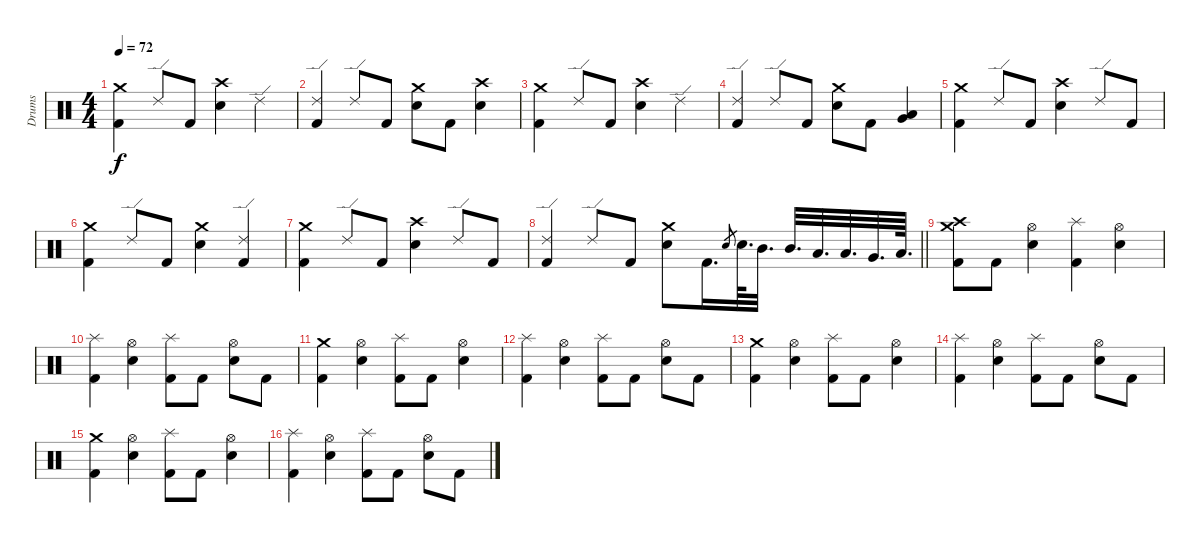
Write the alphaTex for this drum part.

\track ("Drums" "Drums") {instrument percussion}
\staff {score}
\articulation defaults
\ts (4 4)
\tempo 72
\clef neutral
\ks c
("Crash medium (hit)" "Kick (hit) 2").4{dy f} "Ride (edge) 2".8 "Kick (hit) 2".8 ("Crash high (hit)" "Snare (hit) 2").4 "Ride (edge) 2".4 |
("Ride (edge) 2" "Kick (hit) 2").4 "Ride (edge) 2".8 "Kick (hit) 2".8 ("Crash medium (hit)" "Snare (hit) 2").8 "Kick (hit) 2".8 ("Crash high (hit)" "Snare (hit) 2").4 |
("Crash medium (hit)" "Kick (hit) 2").4 "Ride (edge) 2".8 "Kick (hit) 2".8 ("Crash high (hit)" "Snare (hit) 2").4 "Ride (edge) 2".4 |
("Ride (edge) 2" "Kick (hit) 2").4 "Ride (edge) 2".8 "Kick (hit) 2".8 ("Crash medium (hit)" "Snare (hit) 2").8 "Kick (hit) 2".8 ("Very Low Tom (hit)" "Low Tom (hit)").4 |
("Crash medium (hit)" "Kick (hit) 2").4 "Ride (edge) 2".8 "Kick (hit) 2".8 ("Crash high (hit)" "Snare (hit) 2").4 "Ride (edge) 2".8 "Kick (hit) 2".8 |
("Crash medium (hit)" "Kick (hit) 2").4 "Ride (edge) 2".8 "Kick (hit) 2".8 ("Crash medium (hit)" "Snare (hit) 2").4 ("Ride (edge) 2" "Kick (hit) 2").4 |
("Crash medium (hit)" "Kick (hit) 2").4 "Ride (edge) 2".8 "Kick (hit) 2".8 ("Crash high (hit)" "Snare (hit) 2").4 "Ride (edge) 2".8 "Kick (hit) 2".8 |
\barLineRight lightlight
("Ride (edge) 2" "Kick (hit) 2").4 "Ride (edge) 2".8 "Kick (hit) 2".8 ("Crash medium (hit)" "Snare (hit) 2").8 "Kick (hit) 2".16{d} "Snare (hit) 2".8{gr} "Snare (hit) 2".64{d} "Mid Tom (hit)".32{d} "Mid Tom (hit)".32{d} "Low Tom (hit)".32{d} "Low Tom (hit)".32{d} "Very Low Tom (hit)".32{d} "Low Floor Tom (hit)".64{d} |
("Crash high (hit)" "Crash medium (hit)" "Kick (hit) 2").8 "Kick (hit) 2".8 ("Hi-Hat (open)" "Snare (hit) 2").4 ("Splash (hit)" "Kick (hit) 2").4 ("Hi-Hat (open)" "Snare (hit) 2").4 |
("Splash (hit)" "Kick (hit) 2").4 ("Hi-Hat (open)" "Snare (hit) 2").4 ("Splash (hit)" "Kick (hit) 2").8 "Kick (hit) 2".8 ("Hi-Hat (open)" "Snare (hit) 2").8 "Kick (hit) 2".8 |
("Crash medium (hit)" "Kick (hit) 2").4 ("Hi-Hat (open)" "Snare (hit) 2").4 ("Splash (hit)" "Kick (hit) 2").8 "Kick (hit) 2".8 ("Hi-Hat (open)" "Snare (hit) 2").4 |
("Splash (hit)" "Kick (hit) 2").4 ("Hi-Hat (open)" "Snare (hit) 2").4 ("Splash (hit)" "Kick (hit) 2").8 "Kick (hit) 2".8 ("Hi-Hat (open)" "Snare (hit) 2").8 "Kick (hit) 2".8 |
("Crash medium (hit)" "Kick (hit) 2").4 ("Hi-Hat (open)" "Snare (hit) 2").4 ("Splash (hit)" "Kick (hit) 2").8 "Kick (hit) 2".8 ("Hi-Hat (open)" "Snare (hit) 2").4 |
("Splash (hit)" "Kick (hit) 2").4 ("Hi-Hat (open)" "Snare (hit) 2").4 ("Splash (hit)" "Kick (hit) 2").8 "Kick (hit) 2".8 ("Hi-Hat (open)" "Snare (hit) 2").8 "Kick (hit) 2".8 |
("Crash medium (hit)" "Kick (hit) 2").4 ("Hi-Hat (open)" "Snare (hit) 2").4 ("Splash (hit)" "Kick (hit) 2").8 "Kick (hit) 2".8 ("Hi-Hat (open)" "Snare (hit) 2").4 |
("Splash (hit)" "Kick (hit) 2").4 ("Hi-Hat (open)" "Snare (hit) 2").4 ("Splash (hit)" "Kick (hit) 2").8 "Kick (hit) 2".8 ("Hi-Hat (open)" "Snare (hit) 2").8 "Kick (hit) 2".8
